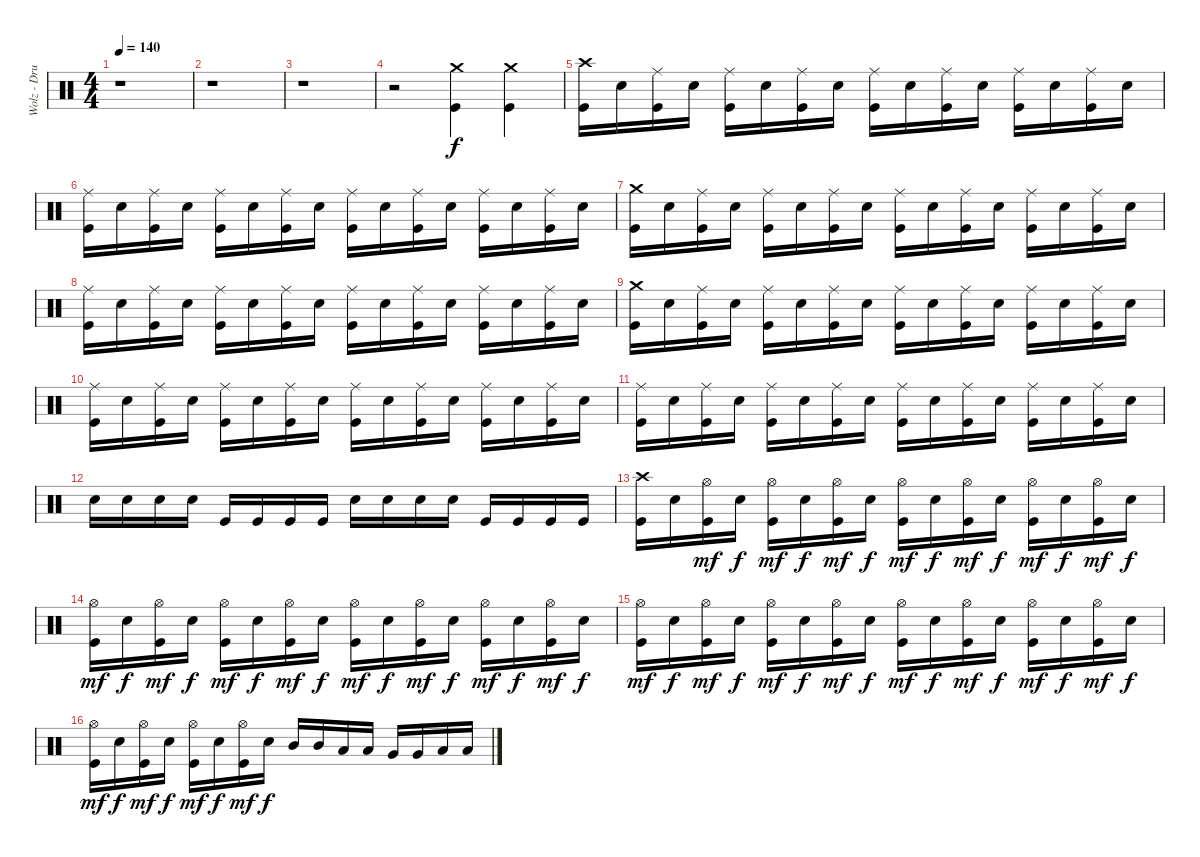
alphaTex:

\track ("Wolz - Drums" "Wolz - Dru") {instrument percussion}
\staff {score}
\articulation defaults
\ts (4 4)
\tempo 140
\clef neutral
\ks c
r.1{dy f} |
r.1 |
r.1 |
r.2 ("Crash medium (hit)" "Kick (hit)").4 ("Crash medium (hit)" "Kick (hit)").4 |
("Crash high (hit)" "Kick (hit)").16 "Electric Snare (hit)".16 ("Ride (middle)" "Kick (hit)").16 "Electric Snare (hit)".16 ("Ride (middle)" "Kick (hit)").16 "Electric Snare (hit)".16 ("Ride (middle)" "Kick (hit)").16 "Electric Snare (hit)".16 ("Ride (middle)" "Kick (hit)").16 "Electric Snare (hit)".16 ("Ride (middle)" "Kick (hit)").16 "Electric Snare (hit)".16 ("Ride (middle)" "Kick (hit)").16 "Electric Snare (hit)".16 ("Ride (middle)" "Kick (hit)").16 "Electric Snare (hit)".16 |
("Ride (middle)" "Kick (hit)").16 "Electric Snare (hit)".16 ("Ride (middle)" "Kick (hit)").16 "Electric Snare (hit)".16 ("Ride (middle)" "Kick (hit)").16 "Electric Snare (hit)".16 ("Ride (middle)" "Kick (hit)").16 "Electric Snare (hit)".16 ("Ride (middle)" "Kick (hit)").16 "Electric Snare (hit)".16 ("Ride (middle)" "Kick (hit)").16 "Electric Snare (hit)".16 ("Ride (middle)" "Kick (hit)").16 "Electric Snare (hit)".16 ("Ride (middle)" "Kick (hit)").16 "Electric Snare (hit)".16 |
("Crash medium (hit)" "Kick (hit)").16 "Electric Snare (hit)".16 ("Ride (middle)" "Kick (hit)").16 "Electric Snare (hit)".16 ("Ride (middle)" "Kick (hit)").16 "Electric Snare (hit)".16 ("Ride (middle)" "Kick (hit)").16 "Electric Snare (hit)".16 ("Ride (middle)" "Kick (hit)").16 "Electric Snare (hit)".16 ("Ride (middle)" "Kick (hit)").16 "Electric Snare (hit)".16 ("Ride (middle)" "Kick (hit)").16 "Electric Snare (hit)".16 ("Ride (middle)" "Kick (hit)").16 "Electric Snare (hit)".16 |
("Ride (middle)" "Kick (hit)").16 "Electric Snare (hit)".16 ("Ride (middle)" "Kick (hit)").16 "Electric Snare (hit)".16 ("Ride (middle)" "Kick (hit)").16 "Electric Snare (hit)".16 ("Ride (middle)" "Kick (hit)").16 "Electric Snare (hit)".16 ("Ride (middle)" "Kick (hit)").16 "Electric Snare (hit)".16 ("Ride (middle)" "Kick (hit)").16 "Electric Snare (hit)".16 ("Ride (middle)" "Kick (hit)").16 "Electric Snare (hit)".16 ("Ride (middle)" "Kick (hit)").16 "Electric Snare (hit)".16 |
("Crash medium (hit)" "Kick (hit)").16 "Electric Snare (hit)".16 ("Ride (middle)" "Kick (hit)").16 "Electric Snare (hit)".16 ("Ride (middle)" "Kick (hit)").16 "Electric Snare (hit)".16 ("Ride (middle)" "Kick (hit)").16 "Electric Snare (hit)".16 ("Ride (middle)" "Kick (hit)").16 "Electric Snare (hit)".16 ("Ride (middle)" "Kick (hit)").16 "Electric Snare (hit)".16 ("Ride (middle)" "Kick (hit)").16 "Electric Snare (hit)".16 ("Ride (middle)" "Kick (hit)").16 "Electric Snare (hit)".16 |
("Ride (middle)" "Kick (hit)").16 "Electric Snare (hit)".16 ("Ride (middle)" "Kick (hit)").16 "Electric Snare (hit)".16 ("Ride (middle)" "Kick (hit)").16 "Electric Snare (hit)".16 ("Ride (middle)" "Kick (hit)").16 "Electric Snare (hit)".16 ("Ride (middle)" "Kick (hit)").16 "Electric Snare (hit)".16 ("Ride (middle)" "Kick (hit)").16 "Electric Snare (hit)".16 ("Ride (middle)" "Kick (hit)").16 "Electric Snare (hit)".16 ("Ride (middle)" "Kick (hit)").16 "Electric Snare (hit)".16 |
("Ride (middle)" "Kick (hit)").16 "Electric Snare (hit)".16 ("Ride (middle)" "Kick (hit)").16 "Electric Snare (hit)".16 ("Ride (middle)" "Kick (hit)").16 "Electric Snare (hit)".16 ("Ride (middle)" "Kick (hit)").16 "Electric Snare (hit)".16 ("Ride (middle)" "Kick (hit)").16 "Electric Snare (hit)".16 ("Ride (middle)" "Kick (hit)").16 "Electric Snare (hit)".16 ("Ride (middle)" "Kick (hit)").16 "Electric Snare (hit)".16 ("Ride (middle)" "Kick (hit)").16 "Electric Snare (hit)".16 |
"Electric Snare (hit)".16 "Electric Snare (hit)".16 "Electric Snare (hit)".16 "Electric Snare (hit)".16 "Kick (hit)".16 "Kick (hit)".16 "Kick (hit)".16 "Kick (hit)".16 "Electric Snare (hit)".16 "Electric Snare (hit)".16 "Electric Snare (hit)".16 "Electric Snare (hit)".16 "Kick (hit)".16 "Kick (hit)".16 "Kick (hit)".16 "Kick (hit)".16 |
("Crash high (hit)" "Kick (hit)").16 "Electric Snare (hit)".16 ("Hi-Hat (open)" "Kick (hit)").16{dy mf} "Electric Snare (hit)".16{dy f} ("Hi-Hat (open)" "Kick (hit)").16{dy mf} "Electric Snare (hit)".16{dy f} ("Hi-Hat (open)" "Kick (hit)").16{dy mf} "Electric Snare (hit)".16{dy f} ("Hi-Hat (open)" "Kick (hit)").16{dy mf} "Electric Snare (hit)".16{dy f} ("Hi-Hat (open)" "Kick (hit)").16{dy mf} "Electric Snare (hit)".16{dy f} ("Hi-Hat (open)" "Kick (hit)").16{dy mf} "Electric Snare (hit)".16{dy f} ("Hi-Hat (open)" "Kick (hit)").16{dy mf} "Electric Snare (hit)".16{dy f} |
("Hi-Hat (open)" "Kick (hit)").16{dy mf} "Electric Snare (hit)".16{dy f} ("Hi-Hat (open)" "Kick (hit)").16{dy mf} "Electric Snare (hit)".16{dy f} ("Hi-Hat (open)" "Kick (hit)").16{dy mf} "Electric Snare (hit)".16{dy f} ("Hi-Hat (open)" "Kick (hit)").16{dy mf} "Electric Snare (hit)".16{dy f} ("Hi-Hat (open)" "Kick (hit)").16{dy mf} "Electric Snare (hit)".16{dy f} ("Hi-Hat (open)" "Kick (hit)").16{dy mf} "Electric Snare (hit)".16{dy f} ("Hi-Hat (open)" "Kick (hit)").16{dy mf} "Electric Snare (hit)".16{dy f} ("Hi-Hat (open)" "Kick (hit)").16{dy mf} "Electric Snare (hit)".16{dy f} |
("Hi-Hat (open)" "Kick (hit)").16{dy mf} "Electric Snare (hit)".16{dy f} ("Hi-Hat (open)" "Kick (hit)").16{dy mf} "Electric Snare (hit)".16{dy f} ("Hi-Hat (open)" "Kick (hit)").16{dy mf} "Electric Snare (hit)".16{dy f} ("Hi-Hat (open)" "Kick (hit)").16{dy mf} "Electric Snare (hit)".16{dy f} ("Hi-Hat (open)" "Kick (hit)").16{dy mf} "Electric Snare (hit)".16{dy f} ("Hi-Hat (open)" "Kick (hit)").16{dy mf} "Electric Snare (hit)".16{dy f} ("Hi-Hat (open)" "Kick (hit)").16{dy mf} "Electric Snare (hit)".16{dy f} ("Hi-Hat (open)" "Kick (hit)").16{dy mf} "Electric Snare (hit)".16{dy f} |
("Hi-Hat (open)" "Kick (hit)").16{dy mf} "Electric Snare (hit)".16{dy f} ("Hi-Hat (open)" "Kick (hit)").16{dy mf} "Electric Snare (hit)".16{dy f} ("Hi-Hat (open)" "Kick (hit)").16{dy mf} "Electric Snare (hit)".16{dy f} ("Hi-Hat (open)" "Kick (hit)").16{dy mf} "Electric Snare (hit)".16{dy f} "Mid Tom (hit)".16 "Mid Tom (hit)".16 "Low Tom (hit)".16 "Low Tom (hit)".16 "Very Low Tom (hit)".16 "Very Low Tom (hit)".16 "Low Floor Tom (hit)".16 "Low Floor Tom (hit)".16
